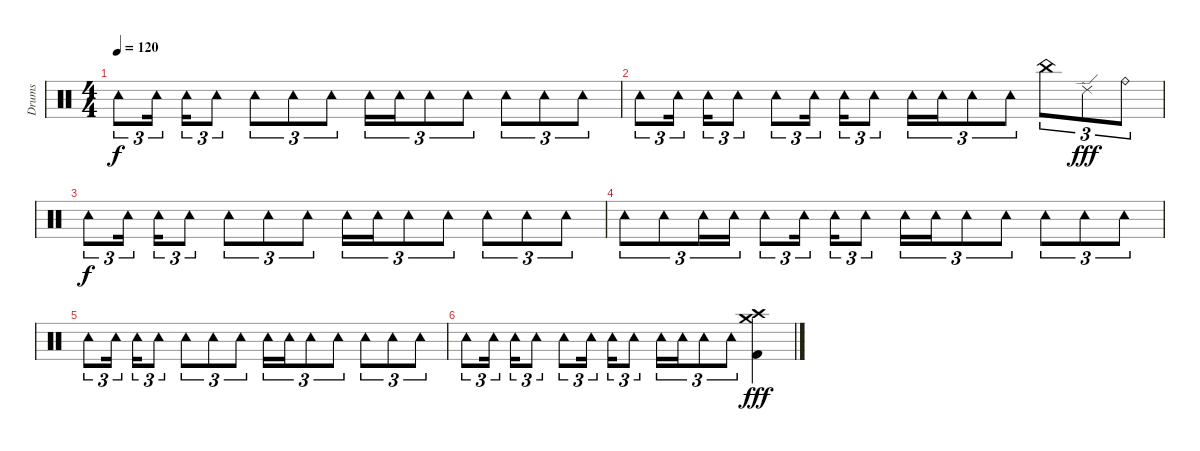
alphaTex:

\track ("Drums" "Drums") {instrument percussion}
\staff {score}
\articulation defaults
\ts (4 4)
\tempo 120
\clef neutral
\ks c "Tambourine (hit)".8{tu (3 2) dy f} "Tambourine (hit)".16{tu (3 2)} "Tambourine (hit)".16{tu (3 2)} "Tambourine (hit)".8{tu (3 2)} "Tambourine (hit)".8{tu (3 2)} "Tambourine (hit)".8{tu (3 2)} "Tambourine (hit)".8{tu (3 2)} "Tambourine (hit)".16{tu (3 2)} "Tambourine (hit)".16{tu (3 2)} "Tambourine (hit)".8{tu (3 2)} "Tambourine (hit)".8{tu (3 2)} "Tambourine (hit)".8{tu (3 2)} "Tambourine (hit)".8{tu (3 2)} "Tambourine (hit)".8{tu (3 2)}
|
"Tambourine (hit)".8{tu (3 2)} "Tambourine (hit)".16{tu (3 2)} "Tambourine (hit)".16{tu (3 2)} "Tambourine (hit)".8{tu (3 2)} "Tambourine (hit)".8{tu (3 2)} "Tambourine (hit)".16{tu (3 2)} "Tambourine (hit)".16{tu (3 2)} "Tambourine (hit)".8{tu (3 2)} "Tambourine (hit)".16{tu (3 2)} "Tambourine (hit)".16{tu (3 2)} "Tambourine (hit)".8{tu (3 2)} "Tambourine (hit)".8{tu (3 2)} "China (hit)".8{tu (3 2)} "Ride (edge) 2".8{tu (3 2) dy fff} "Ride (bell)".8{tu (3 2)} |
"Tambourine (hit)".8{tu (3 2) dy f volume 4} "Tambourine (hit)".16{tu (3 2)} "Tambourine (hit)".16{tu (3 2)} "Tambourine (hit)".8{tu (3 2)} "Tambourine (hit)".8{tu (3 2)} "Tambourine (hit)".8{tu (3 2)} "Tambourine (hit)".8{tu (3 2)} "Tambourine (hit)".16{tu (3 2)} "Tambourine (hit)".16{tu (3 2)} "Tambourine (hit)".8{tu (3 2)} "Tambourine (hit)".8{tu (3 2)} "Tambourine (hit)".8{tu (3 2)} "Tambourine (hit)".8{tu (3 2)} "Tambourine (hit)".8{tu (3 2)} |
"Tambourine (hit)".8{tu (3 2)} "Tambourine (hit)".8{tu (3 2)} "Tambourine (hit)".16{tu (3 2)} "Tambourine (hit)".16{tu (3 2)} "Tambourine (hit)".8{tu (3 2)} "Tambourine (hit)".16{tu (3 2)} "Tambourine (hit)".16{tu (3 2)} "Tambourine (hit)".8{tu (3 2)} "Tambourine (hit)".16{tu (3 2)} "Tambourine (hit)".16{tu (3 2)} "Tambourine (hit)".8{tu (3 2)} "Tambourine (hit)".8{tu (3 2)} "Tambourine (hit)".8{tu (3 2)} "Tambourine (hit)".8{tu (3 2)} "Tambourine (hit)".8{tu (3 2)} |
"Tambourine (hit)".8{tu (3 2) volume 0} "Tambourine (hit)".16{tu (3 2)} "Tambourine (hit)".16{tu (3 2)} "Tambourine (hit)".8{tu (3 2)} "Tambourine (hit)".8{tu (3 2)} "Tambourine (hit)".8{tu (3 2)} "Tambourine (hit)".8{tu (3 2)} "Tambourine (hit)".16{tu (3 2)} "Tambourine (hit)".16{tu (3 2)} "Tambourine (hit)".8{tu (3 2)} "Tambourine (hit)".8{tu (3 2)} "Tambourine (hit)".8{tu (3 2)} "Tambourine (hit)".8{tu (3 2)} "Tambourine (hit)".8{tu (3 2)} |
"Tambourine (hit)".8{tu (3 2)} "Tambourine (hit)".16{tu (3 2)} "Tambourine (hit)".16{tu (3 2)} "Tambourine (hit)".8{tu (3 2)} "Tambourine (hit)".8{tu (3 2)} "Tambourine (hit)".16{tu (3 2)} "Tambourine (hit)".16{tu (3 2)} "Tambourine (hit)".8{tu (3 2)} "Tambourine (hit)".16{tu (3 2)} "Tambourine (hit)".16{tu (3 2)} "Tambourine (hit)".8{tu (3 2)} "Tambourine (hit)".8{tu (3 2)} ("Crash high (hit)" "Crash medium (hit)" "Kick (hit) 2").4{dy fff}
